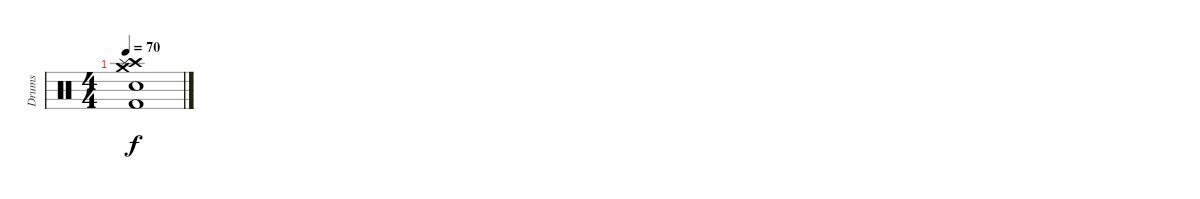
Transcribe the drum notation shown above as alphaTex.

\track ("Drums" "Drums") {instrument percussion}
\staff {score}
\articulation defaults
\ts (4 4)
\tempo 70
\clef neutral
\ks c
("Crash high (hit)" "Splash (hit)" "Crash medium (hit)" "Kick (hit) 2" "Snare (hit) 2").1{dy f}
